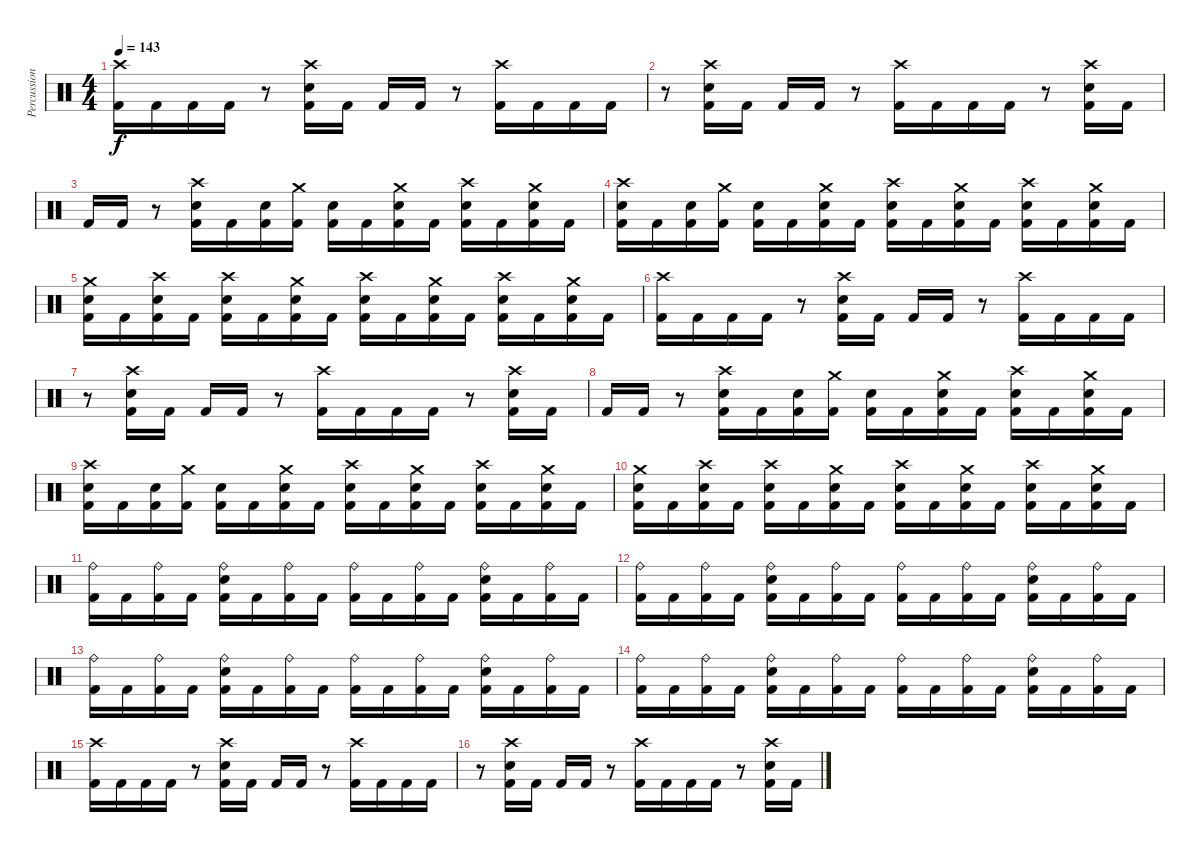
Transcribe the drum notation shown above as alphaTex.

\track ("Percussion" "Percussion") {instrument percussion}
\staff {score}
\articulation defaults
\ts (4 4)
\section ("" "")
\tempo 143
\clef neutral
\ks c
("Crash high (hit)" "Kick (hit) 2").16{dy f} "Kick (hit) 2".16 "Kick (hit) 2".16 "Kick (hit) 2".16 r.8 ("Crash high (hit)" "Snare (hit) 2" "Kick (hit) 2").16 "Kick (hit) 2".16 "Kick (hit) 2".16 "Kick (hit) 2".16 r.8 ("Crash high (hit)" "Kick (hit) 2").16 "Kick (hit) 2".16 "Kick (hit) 2".16 "Kick (hit) 2".16 |
r.8 ("Crash high (hit)" "Snare (hit) 2" "Kick (hit) 2").16 "Kick (hit) 2".16 "Kick (hit) 2".16 "Kick (hit) 2".16 r.8 ("Crash high (hit)" "Kick (hit) 2").16 "Kick (hit) 2".16 "Kick (hit) 2".16 "Kick (hit) 2".16 r.8 ("Crash high (hit)" "Snare (hit) 2" "Kick (hit) 2").16 "Kick (hit) 2".16 |
"Kick (hit) 2".16 "Kick (hit) 2".16 r.8 ("Crash high (hit)" "Snare (hit) 2" "Kick (hit) 2").16 "Kick (hit) 2".16 ("Snare (hit) 2" "Kick (hit) 2").16 ("Crash medium (hit)" "Kick (hit) 2").16 ("Snare (hit) 2" "Kick (hit) 2").16 "Kick (hit) 2".16 ("Crash medium (hit)" "Snare (hit) 2" "Kick (hit) 2").16 "Kick (hit) 2".16 ("Crash high (hit)" "Snare (hit) 2" "Kick (hit) 2").16 "Kick (hit) 2".16 ("Crash medium (hit)" "Snare (hit) 2" "Kick (hit) 2").16 "Kick (hit) 2".16 |
("Crash high (hit)" "Snare (hit) 2" "Kick (hit) 2").16 "Kick (hit) 2".16 ("Snare (hit) 2" "Kick (hit) 2").16 ("Crash medium (hit)" "Kick (hit) 2").16 ("Snare (hit) 2" "Kick (hit) 2").16 "Kick (hit) 2".16 ("Crash medium (hit)" "Snare (hit) 2" "Kick (hit) 2").16 "Kick (hit) 2".16 ("Crash high (hit)" "Snare (hit) 2" "Kick (hit) 2").16 "Kick (hit) 2".16 ("Crash medium (hit)" "Snare (hit) 2" "Kick (hit) 2").16 "Kick (hit) 2".16 ("Crash high (hit)" "Snare (hit) 2" "Kick (hit) 2").16 "Kick (hit) 2".16 ("Crash medium (hit)" "Snare (hit) 2" "Kick (hit) 2").16 "Kick (hit) 2".16 |
("Crash medium (hit)" "Snare (hit) 2" "Kick (hit) 2").16 "Kick (hit) 2".16 ("Crash high (hit)" "Snare (hit) 2" "Kick (hit) 2").16 "Kick (hit) 2".16 ("Crash high (hit)" "Snare (hit) 2" "Kick (hit) 2").16 "Kick (hit) 2".16 ("Crash medium (hit)" "Snare (hit) 2" "Kick (hit) 2").16 "Kick (hit) 2".16 ("Crash high (hit)" "Snare (hit) 2" "Kick (hit) 2").16 "Kick (hit) 2".16 ("Crash medium (hit)" "Snare (hit) 2" "Kick (hit) 2").16 "Kick (hit) 2".16 ("Crash high (hit)" "Snare (hit) 2" "Kick (hit) 2").16 "Kick (hit) 2".16 ("Crash medium (hit)" "Snare (hit) 2" "Kick (hit) 2").16 "Kick (hit) 2".16 |
("Crash high (hit)" "Kick (hit) 2").16 "Kick (hit) 2".16 "Kick (hit) 2".16 "Kick (hit) 2".16 r.8 ("Crash high (hit)" "Snare (hit) 2" "Kick (hit) 2").16 "Kick (hit) 2".16 "Kick (hit) 2".16 "Kick (hit) 2".16 r.8 ("Crash high (hit)" "Kick (hit) 2").16 "Kick (hit) 2".16 "Kick (hit) 2".16 "Kick (hit) 2".16 |
r.8 ("Crash high (hit)" "Snare (hit) 2" "Kick (hit) 2").16 "Kick (hit) 2".16 "Kick (hit) 2".16 "Kick (hit) 2".16 r.8 ("Crash high (hit)" "Kick (hit) 2").16 "Kick (hit) 2".16 "Kick (hit) 2".16 "Kick (hit) 2".16 r.8 ("Crash high (hit)" "Snare (hit) 2" "Kick (hit) 2").16 "Kick (hit) 2".16 |
"Kick (hit) 2".16 "Kick (hit) 2".16 r.8 ("Crash high (hit)" "Snare (hit) 2" "Kick (hit) 2").16 "Kick (hit) 2".16 ("Snare (hit) 2" "Kick (hit) 2").16 ("Crash medium (hit)" "Kick (hit) 2").16 ("Snare (hit) 2" "Kick (hit) 2").16 "Kick (hit) 2".16 ("Crash medium (hit)" "Snare (hit) 2" "Kick (hit) 2").16 "Kick (hit) 2".16 ("Crash high (hit)" "Snare (hit) 2" "Kick (hit) 2").16 "Kick (hit) 2".16 ("Crash medium (hit)" "Snare (hit) 2" "Kick (hit) 2").16 "Kick (hit) 2".16 |
("Crash high (hit)" "Snare (hit) 2" "Kick (hit) 2").16 "Kick (hit) 2".16 ("Snare (hit) 2" "Kick (hit) 2").16 ("Crash medium (hit)" "Kick (hit) 2").16 ("Snare (hit) 2" "Kick (hit) 2").16 "Kick (hit) 2".16 ("Crash medium (hit)" "Snare (hit) 2" "Kick (hit) 2").16 "Kick (hit) 2".16 ("Crash high (hit)" "Snare (hit) 2" "Kick (hit) 2").16 "Kick (hit) 2".16 ("Crash medium (hit)" "Snare (hit) 2" "Kick (hit) 2").16 "Kick (hit) 2".16 ("Crash high (hit)" "Snare (hit) 2" "Kick (hit) 2").16 "Kick (hit) 2".16 ("Crash medium (hit)" "Snare (hit) 2" "Kick (hit) 2").16 "Kick (hit) 2".16 |
("Crash medium (hit)" "Snare (hit) 2" "Kick (hit) 2").16 "Kick (hit) 2".16 ("Crash high (hit)" "Snare (hit) 2" "Kick (hit) 2").16 "Kick (hit) 2".16 ("Crash high (hit)" "Snare (hit) 2" "Kick (hit) 2").16 "Kick (hit) 2".16 ("Crash medium (hit)" "Snare (hit) 2" "Kick (hit) 2").16 "Kick (hit) 2".16 ("Crash high (hit)" "Snare (hit) 2" "Kick (hit) 2").16 "Kick (hit) 2".16 ("Crash medium (hit)" "Snare (hit) 2" "Kick (hit) 2").16 "Kick (hit) 2".16 ("Crash high (hit)" "Snare (hit) 2" "Kick (hit) 2").16 "Kick (hit) 2".16 ("Crash medium (hit)" "Snare (hit) 2" "Kick (hit) 2").16 "Kick (hit) 2".16 |
("Ride (bell)" "Kick (hit) 2").16 "Kick (hit) 2".16 ("Ride (bell)" "Kick (hit) 2").16 "Kick (hit) 2".16 ("Ride (bell)" "Snare (hit) 2" "Kick (hit) 2").16 "Kick (hit) 2".16 ("Ride (bell)" "Kick (hit) 2").16 "Kick (hit) 2".16 ("Ride (bell)" "Kick (hit) 2").16 "Kick (hit) 2".16 ("Ride (bell)" "Kick (hit) 2").16 "Kick (hit) 2".16 ("Ride (bell)" "Snare (hit) 2" "Kick (hit) 2").16 "Kick (hit) 2".16 ("Ride (bell)" "Kick (hit) 2").16 "Kick (hit) 2".16 |
("Ride (bell)" "Kick (hit) 2").16 "Kick (hit) 2".16 ("Ride (bell)" "Kick (hit) 2").16 "Kick (hit) 2".16 ("Ride (bell)" "Snare (hit) 2" "Kick (hit) 2").16 "Kick (hit) 2".16 ("Ride (bell)" "Kick (hit) 2").16 "Kick (hit) 2".16 ("Ride (bell)" "Kick (hit) 2").16 "Kick (hit) 2".16 ("Ride (bell)" "Kick (hit) 2").16 "Kick (hit) 2".16 ("Ride (bell)" "Snare (hit) 2" "Kick (hit) 2").16 "Kick (hit) 2".16 ("Ride (bell)" "Kick (hit) 2").16 "Kick (hit) 2".16 |
("Ride (bell)" "Kick (hit) 2").16 "Kick (hit) 2".16 ("Ride (bell)" "Kick (hit) 2").16 "Kick (hit) 2".16 ("Ride (bell)" "Snare (hit) 2" "Kick (hit) 2").16 "Kick (hit) 2".16 ("Ride (bell)" "Kick (hit) 2").16 "Kick (hit) 2".16 ("Ride (bell)" "Kick (hit) 2").16 "Kick (hit) 2".16 ("Ride (bell)" "Kick (hit) 2").16 "Kick (hit) 2".16 ("Ride (bell)" "Snare (hit) 2" "Kick (hit) 2").16 "Kick (hit) 2".16 ("Ride (bell)" "Kick (hit) 2").16 "Kick (hit) 2".16 |
("Ride (bell)" "Kick (hit) 2").16 "Kick (hit) 2".16 ("Ride (bell)" "Kick (hit) 2").16 "Kick (hit) 2".16 ("Ride (bell)" "Snare (hit) 2" "Kick (hit) 2").16 "Kick (hit) 2".16 ("Ride (bell)" "Kick (hit) 2").16 "Kick (hit) 2".16 ("Ride (bell)" "Kick (hit) 2").16 "Kick (hit) 2".16 ("Ride (bell)" "Kick (hit) 2").16 "Kick (hit) 2".16 ("Ride (bell)" "Snare (hit) 2" "Kick (hit) 2").16 "Kick (hit) 2".16 ("Ride (bell)" "Kick (hit) 2").16 "Kick (hit) 2".16 |
("Crash high (hit)" "Kick (hit) 2").16 "Kick (hit) 2".16 "Kick (hit) 2".16 "Kick (hit) 2".16 r.8 ("Crash high (hit)" "Snare (hit) 2" "Kick (hit) 2").16 "Kick (hit) 2".16 "Kick (hit) 2".16 "Kick (hit) 2".16 r.8 ("Crash high (hit)" "Kick (hit) 2").16 "Kick (hit) 2".16 "Kick (hit) 2".16 "Kick (hit) 2".16 |
r.8 ("Crash high (hit)" "Snare (hit) 2" "Kick (hit) 2").16 "Kick (hit) 2".16 "Kick (hit) 2".16 "Kick (hit) 2".16 r.8 ("Crash high (hit)" "Kick (hit) 2").16 "Kick (hit) 2".16 "Kick (hit) 2".16 "Kick (hit) 2".16 r.8 ("Crash high (hit)" "Snare (hit) 2" "Kick (hit) 2").16 "Kick (hit) 2".16
